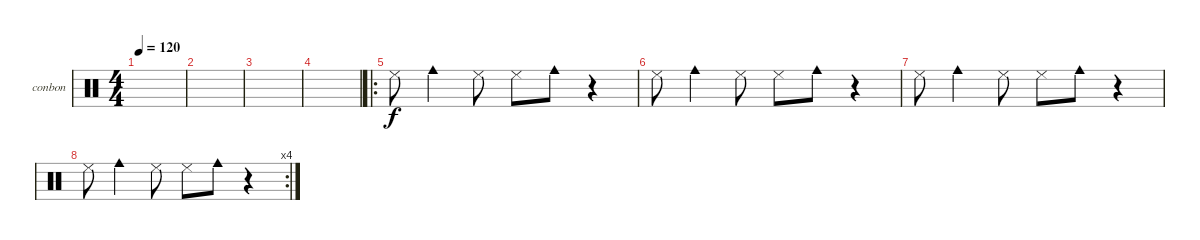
\defaultSystemsLayout 4
\bracketExtendMode groupsimilarinstruments
\firstSystemTrackNameOrientation horizontal
\otherSystemsTrackNameOrientation horizontal
\track ("Bongos N Congas" "conbon") {instrument percussion}
\staff {score}
\articulation defaults
\ts (4 4)
\tempo 120
\clef neutral
\scale
0.474178
\ks c
|
\scale
0.262911 |
\scale
0.262911 |
\scale
0.333333 |
\ro
\scale
0.365591 "Cowbell low (tip)".8 "Cowbell medium (hit)".4 "Cowbell low (tip)".8 "Cowbell low (tip)".8 "Cowbell medium (hit)".8 r.4 |
\scale
0.301075 "Cowbell low (tip)".8 "Cowbell medium (hit)".4 "Cowbell low (tip)".8 "Cowbell low (tip)".8 "Cowbell medium (hit)".8 r.4 |
"Cowbell low (tip)".8 "Cowbell medium (hit)".4 "Cowbell low (tip)".8 "Cowbell low (tip)".8 "Cowbell medium (hit)".8 r.4 |
\rc 4 "Cowbell low (tip)".8 "Cowbell medium (hit)".4 "Cowbell low (tip)".8 "Cowbell low (tip)".8 "Cowbell medium (hit)".8
r.4
